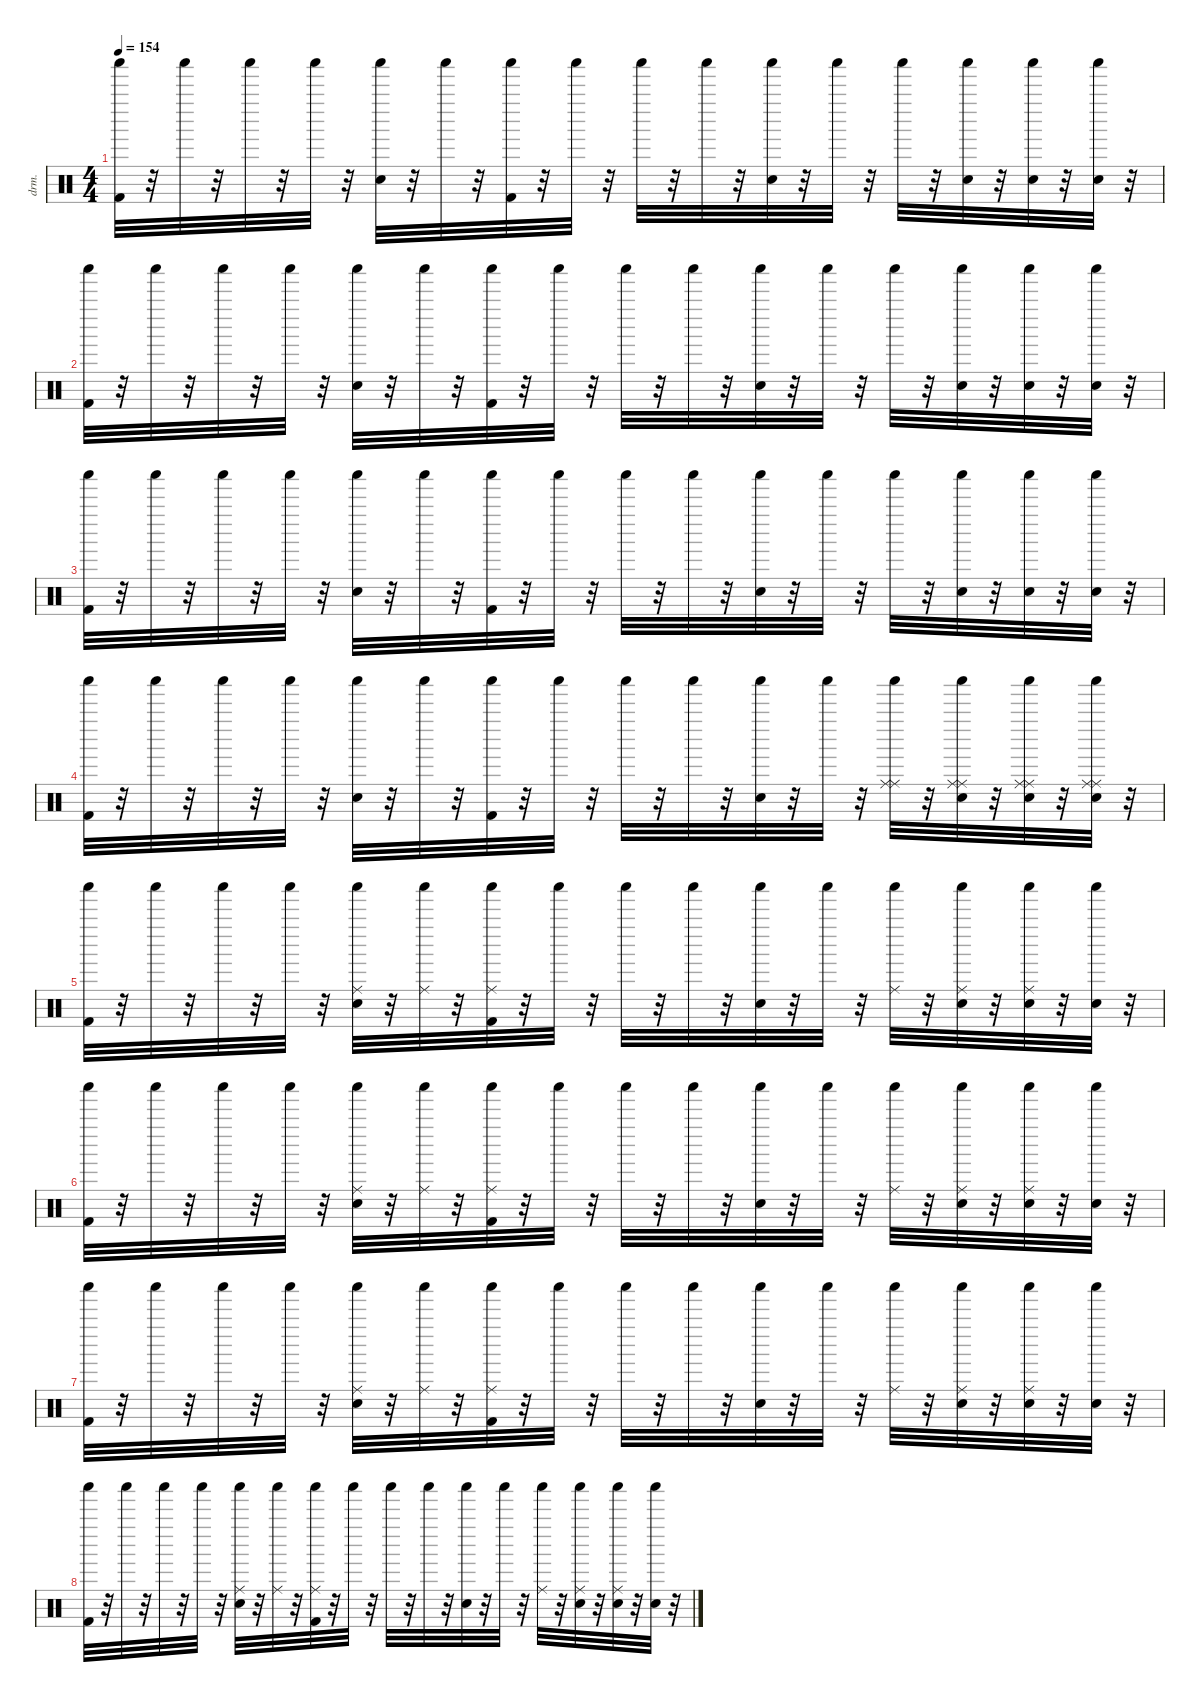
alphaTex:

\defaultSystemsLayout 4
\hideDynamics
\bracketExtendMode nobrackets
\otherSystemsTrackNameOrientation horizontal
\track ("Percussion" "drm.") {instrument percussion}
\staff {score}
\articulation defaults
\ts (4 4)
\tempo 154
\clef neutral
\ks c
("Shaker (hit)" "Kick (hit) 2").32{dy f beam Down} r.32{beam Down} "Shaker (hit)".32{beam Down} r.32{beam Down} "Shaker (hit)".32{beam Down} r.32{beam Down} "Shaker (hit)".32{beam Down} r.32{beam Down} ("Shaker (hit)" "Snare (hit) 2").32{beam Down} r.32{beam Down} "Shaker (hit)".32{beam Down} r.32{beam Down} ("Shaker (hit)" "Kick (hit) 2").32{beam Down} r.32{beam Down} "Shaker (hit)".32{beam Down} r.32{beam Down} "Shaker (hit)".32{beam Down} r.32{beam Down} "Shaker (hit)".32{beam Down} r.32{beam Down} ("Shaker (hit)" "Snare (hit) 2").32{beam Down} r.32{beam Down} "Shaker (hit)".32{beam Down} r.32{beam Down} "Shaker (hit)".32{beam Down} r.32{beam Down} ("Shaker (hit)" "Snare (hit) 2").32{beam Down} r.32{beam Down} ("Shaker (hit)" "Snare (hit) 2").32{beam Down} r.32{beam Down} ("Shaker (hit)" "Snare (hit) 2").32{beam Down} r.32{beam Down} |
("Shaker (hit)" "Kick (hit) 2").32{beam Down} r.32{beam Down} "Shaker (hit)".32{beam Down} r.32{beam Down} "Shaker (hit)".32{beam Down} r.32{beam Down} "Shaker (hit)".32{beam Down} r.32{beam Down} ("Shaker (hit)" "Snare (hit) 2").32{beam Down} r.32{beam Down} "Shaker (hit)".32{beam Down} r.32{beam Down} ("Shaker (hit)" "Kick (hit) 2").32{beam Down} r.32{beam Down} "Shaker (hit)".32{beam Down} r.32{beam Down} "Shaker (hit)".32{beam Down} r.32{beam Down} "Shaker (hit)".32{beam Down} r.32{beam Down} ("Shaker (hit)" "Snare (hit) 2").32{beam Down} r.32{beam Down} "Shaker (hit)".32{beam Down} r.32{beam Down} "Shaker (hit)".32{beam Down} r.32{beam Down} ("Shaker (hit)" "Snare (hit) 2").32{beam Down} r.32{beam Down} ("Shaker (hit)" "Snare (hit) 2").32{beam Down} r.32{beam Down} ("Shaker (hit)" "Snare (hit) 2").32{beam Down} r.32{beam Down} |
("Shaker (hit)" "Kick (hit) 2").32{beam Down} r.32{beam Down} "Shaker (hit)".32{beam Down} r.32{beam Down} "Shaker (hit)".32{beam Down} r.32{beam Down} "Shaker (hit)".32{beam Down} r.32{beam Down} ("Shaker (hit)" "Snare (hit) 2").32{beam Down} r.32{beam Down} "Shaker (hit)".32{beam Down} r.32{beam Down} ("Shaker (hit)" "Kick (hit) 2").32{beam Down} r.32{beam Down} "Shaker (hit)".32{beam Down} r.32{beam Down} "Shaker (hit)".32{beam Down} r.32{beam Down} "Shaker (hit)".32{beam Down} r.32{beam Down} ("Shaker (hit)" "Snare (hit) 2").32{beam Down} r.32{beam Down} "Shaker (hit)".32{beam Down} r.32{beam Down} "Shaker (hit)".32{beam Down} r.32{beam Down} ("Shaker (hit)" "Snare (hit) 2").32{beam Down} r.32{beam Down} ("Shaker (hit)" "Snare (hit) 2").32{beam Down} r.32{beam Down} ("Shaker (hit)" "Snare (hit) 2").32{beam Down} r.32{beam Down} |
("Shaker (hit)" "Kick (hit) 2").32{beam Down} r.32{beam Down} "Shaker (hit)".32{beam Down} r.32{beam Down} "Shaker (hit)".32{beam Down} r.32{beam Down} "Shaker (hit)".32{beam Down} r.32{beam Down} ("Shaker (hit)" "Snare (hit) 2").32{beam Down} r.32{beam Down} "Shaker (hit)".32{beam Down} r.32{beam Down} ("Shaker (hit)" "Kick (hit) 2").32{beam Down} r.32{beam Down} "Shaker (hit)".32{beam Down} r.32{beam Down} "Shaker (hit)".32{beam Down} r.32{beam Down} "Shaker (hit)".32{beam Down} r.32{beam Down} ("Shaker (hit)" "Snare (hit) 2").32{beam Down} r.32{beam Down} "Shaker (hit)".32{beam Down} r.32{beam Down} ("Shaker (hit)" "Ride (middle)" "Ride (middle)").32{beam Down} r.32{beam Down} ("Shaker (hit)" "Snare (hit) 2" "Ride (middle)" "Ride (middle)").32{beam Down} r.32{beam Down} ("Shaker (hit)" "Snare (hit) 2" "Ride (middle)" "Ride (middle)").32{beam Down} r.32{beam Down} ("Shaker (hit)" "Snare (hit) 2" "Ride (middle)" "Ride (middle)").32{beam Down} r.32{beam Down} |
("Shaker (hit)" "Kick (hit) 2").32{beam Down} r.32{beam Down} "Shaker (hit)".32{beam Down} r.32{beam Down} "Shaker (hit)".32{beam Down} r.32{beam Down} "Shaker (hit)".32{beam Down} r.32{beam Down} ("Shaker (hit)" "Snare (hit) 2" "Ride (middle)").32{beam Down} r.32{beam Down} ("Shaker (hit)" "Ride (middle)").32{beam Down} r.32{beam Down} ("Shaker (hit)" "Kick (hit) 2" "Ride (middle)").32{beam Down} r.32{beam Down} "Shaker (hit)".32{beam Down} r.32{beam Down} "Shaker (hit)".32{beam Down} r.32{beam Down} "Shaker (hit)".32{beam Down} r.32{beam Down} ("Shaker (hit)" "Snare (hit) 2").32{beam Down} r.32{beam Down} "Shaker (hit)".32{beam Down} r.32{beam Down} ("Shaker (hit)" "Ride (middle)").32{beam Down} r.32{beam Down} ("Shaker (hit)" "Snare (hit) 2" "Ride (middle)").32{beam Down} r.32{beam Down} ("Shaker (hit)" "Snare (hit) 2" "Ride (middle)").32{beam Down} r.32{beam Down} ("Shaker (hit)" "Snare (hit) 2").32{beam Down} r.32{beam Down} |
("Shaker (hit)" "Kick (hit) 2").32{beam Down} r.32{beam Down} "Shaker (hit)".32{beam Down} r.32{beam Down} "Shaker (hit)".32{beam Down} r.32{beam Down} "Shaker (hit)".32{beam Down} r.32{beam Down} ("Shaker (hit)" "Snare (hit) 2" "Ride (middle)").32{beam Down} r.32{beam Down} ("Shaker (hit)" "Ride (middle)").32{beam Down} r.32{beam Down} ("Shaker (hit)" "Kick (hit) 2" "Ride (middle)").32{beam Down} r.32{beam Down} "Shaker (hit)".32{beam Down} r.32{beam Down} "Shaker (hit)".32{beam Down} r.32{beam Down} "Shaker (hit)".32{beam Down} r.32{beam Down} ("Shaker (hit)" "Snare (hit) 2").32{beam Down} r.32{beam Down} "Shaker (hit)".32{beam Down} r.32{beam Down} ("Shaker (hit)" "Ride (middle)").32{beam Down} r.32{beam Down} ("Shaker (hit)" "Snare (hit) 2" "Ride (middle)").32{beam Down} r.32{beam Down} ("Shaker (hit)" "Snare (hit) 2" "Ride (middle)").32{beam Down} r.32{beam Down} ("Shaker (hit)" "Snare (hit) 2").32{beam Down} r.32{beam Down} |
("Shaker (hit)" "Kick (hit) 2").32{beam Down} r.32{beam Down} "Shaker (hit)".32{beam Down} r.32{beam Down} "Shaker (hit)".32{beam Down} r.32{beam Down} "Shaker (hit)".32{beam Down} r.32{beam Down} ("Shaker (hit)" "Snare (hit) 2" "Ride (middle)").32{beam Down} r.32{beam Down} ("Shaker (hit)" "Ride (middle)").32{beam Down} r.32{beam Down} ("Shaker (hit)" "Kick (hit) 2" "Ride (middle)").32{beam Down} r.32{beam Down} "Shaker (hit)".32{beam Down} r.32{beam Down} "Shaker (hit)".32{beam Down} r.32{beam Down} "Shaker (hit)".32{beam Down} r.32{beam Down} ("Shaker (hit)" "Snare (hit) 2").32{beam Down} r.32{beam Down} "Shaker (hit)".32{beam Down} r.32{beam Down} ("Shaker (hit)" "Ride (middle)").32{beam Down} r.32{beam Down} ("Shaker (hit)" "Snare (hit) 2" "Ride (middle)").32{beam Down} r.32{beam Down} ("Shaker (hit)" "Snare (hit) 2" "Ride (middle)").32{beam Down} r.32{beam Down} ("Shaker (hit)" "Snare (hit) 2").32{beam Down} r.32{beam Down} |
("Shaker (hit)" "Kick (hit) 2").32{beam Down} r.32{beam Down} "Shaker (hit)".32{beam Down} r.32{beam Down} "Shaker (hit)".32{beam Down} r.32{beam Down} "Shaker (hit)".32{beam Down} r.32{beam Down} ("Shaker (hit)" "Snare (hit) 2" "Ride (middle)").32{beam Down} r.32{beam Down} ("Shaker (hit)" "Ride (middle)").32{beam Down} r.32{beam Down} ("Shaker (hit)" "Kick (hit) 2" "Ride (middle)").32{beam Down} r.32{beam Down} "Shaker (hit)".32{beam Down} r.32{beam Down} "Shaker (hit)".32{beam Down} r.32{beam Down} "Shaker (hit)".32{beam Down} r.32{beam Down} ("Shaker (hit)" "Snare (hit) 2").32{beam Down} r.32{beam Down} "Shaker (hit)".32{beam Down} r.32{beam Down} ("Shaker (hit)" "Ride (middle)").32{beam Down} r.32{beam Down} ("Shaker (hit)" "Snare (hit) 2" "Ride (middle)").32{beam Down} r.32{beam Down} ("Shaker (hit)" "Snare (hit) 2" "Ride (middle)").32{beam Down} r.32{beam Down} ("Shaker (hit)" "Snare (hit) 2").32{beam Down} r.32{beam Down}
